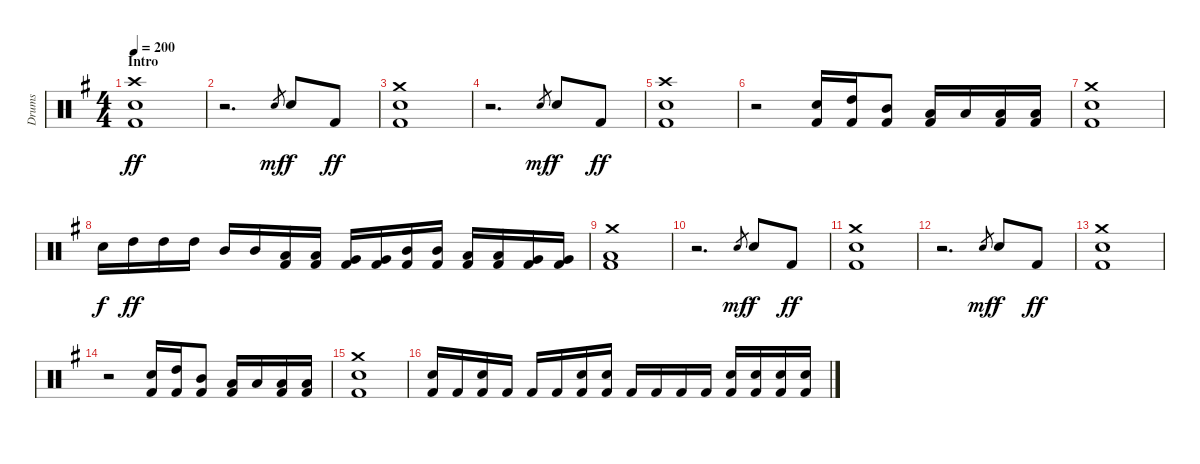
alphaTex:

\track ("Drums" "Drums") {instrument percussion}
\staff {score}
\articulation defaults
\ts (4 4)
\section ("" "Intro")
\tempo 200
\clef neutral
\ks g
("Crash high (hit)" "Snare (hit) 2" "Kick (hit) 2").1{dy ff} |
r.2{d} "Snare (hit) 2".8{gr dy mf} "Snare (hit) 2".8{dy f} "Kick (hit) 2".8{dy ff} |
("Crash medium (hit)" "Snare (hit) 2" "Kick (hit) 2").1 |
r.2{d} "Snare (hit) 2".8{gr dy mf} "Snare (hit) 2".8{dy f} "Kick (hit) 2".8{dy ff} |
("Crash high (hit)" "Snare (hit) 2" "Kick (hit) 2").1 |
r.2 ("Snare (hit) 2" "Kick (hit) 2").16 ("High Tom (hit)" "Kick (hit) 2").16 ("Mid Tom (hit)" "Kick (hit) 2").8 ("Low Tom (hit)" "Kick (hit) 2").16 "Low Tom (hit)".16 ("Low Tom (hit)" "Kick (hit) 2").16 ("Low Tom (hit)" "Kick (hit) 2").16 |
("Crash medium (hit)" "Snare (hit) 2" "Kick (hit) 2").1 |
"Snare (hit) 2".16{dy f} "High Tom (hit)".16{dy ff} "High Tom (hit)".16 "High Tom (hit)".16 "Mid Tom (hit)".16 "Mid Tom (hit)".16 ("Low Tom (hit)" "Kick (hit) 2").16 ("Low Tom (hit)" "Kick (hit) 2").16 ("Very Low Tom (hit)" "Kick (hit) 2").16 ("Very Low Tom (hit)" "Kick (hit) 2").16 ("Mid Tom (hit)" "Kick (hit) 2").16 ("Mid Tom (hit)" "Kick (hit) 2").16 ("Low Tom (hit)" "Kick (hit) 2").16 ("Low Tom (hit)" "Kick (hit) 2").16 ("Very Low Tom (hit)" "Kick (hit) 2").16 ("Very Low Tom (hit)" "Kick (hit) 2").16 |
("Crash medium (hit)" "Low Floor Tom (hit)" "Kick (hit) 2").1 |
r.2{d} "Snare (hit) 2".8{gr dy mf} "Snare (hit) 2".8{dy f} "Kick (hit) 2".8{dy ff} |
("Crash medium (hit)" "Snare (hit) 2" "Kick (hit) 2").1 |
r.2{d} "Snare (hit) 2".8{gr dy mf} "Snare (hit) 2".8{dy f} "Kick (hit) 2".8{dy ff} |
("Crash medium (hit)" "Snare (hit) 2" "Kick (hit) 2").1 |
r.2 ("Snare (hit) 2" "Kick (hit) 2").16 ("High Tom (hit)" "Kick (hit) 2").16 ("Mid Tom (hit)" "Kick (hit) 2").8 ("Low Tom (hit)" "Kick (hit) 2").16 "Low Tom (hit)".16 ("Low Tom (hit)" "Kick (hit) 2").16 ("Low Tom (hit)" "Kick (hit) 2").16 |
("Crash medium (hit)" "Snare (hit) 2" "Kick (hit) 2").1 |
("Snare (hit) 2" "Kick (hit) 2").16 "Kick (hit) 2".16 ("Snare (hit) 2" "Kick (hit) 2").16 "Kick (hit) 2".16 "Kick (hit) 2".16 "Kick (hit) 2".16 ("Snare (hit) 2" "Kick (hit) 2").16 ("Snare (hit) 2" "Kick (hit) 2").16 "Kick (hit) 2".16 "Kick (hit) 2".16 "Kick (hit) 2".16 "Kick (hit) 2".16 ("Snare (hit) 2" "Kick (hit) 2").16 ("Snare (hit) 2" "Kick (hit) 2").16 ("Snare (hit) 2" "Kick (hit) 2").16 ("Snare (hit) 2" "Kick (hit) 2").16
